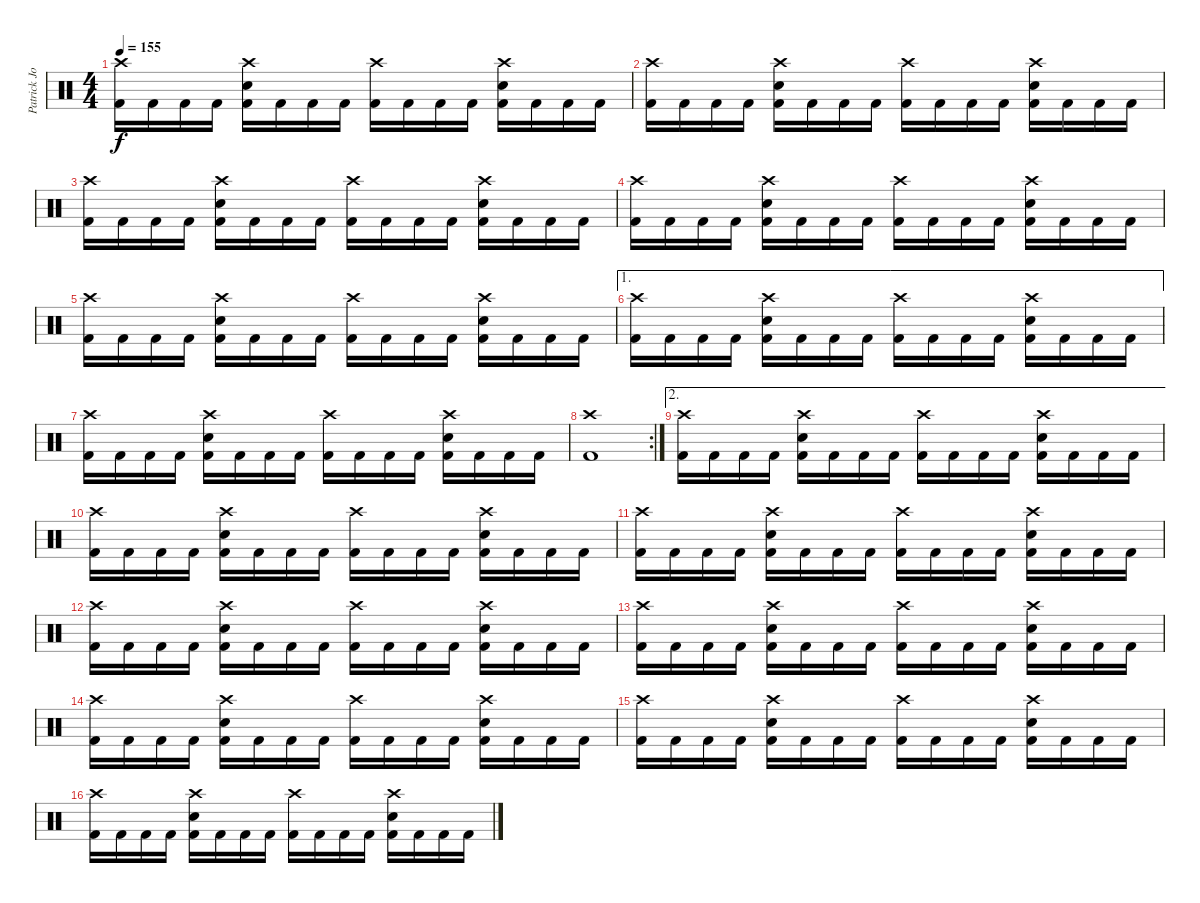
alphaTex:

\track ("Patrick Johansson" "Patrick Jo") {instrument percussion}
\staff {score}
\articulation defaults
\ts (4 4)
\tempo 155
\clef neutral
\ks c
("Crash high (hit)" "Kick (hit) 2").16{dy f} "Kick (hit) 2".16 "Kick (hit) 2".16 "Kick (hit) 2".16 ("Crash high (hit)" "Electric Snare (hit)" "Kick (hit) 2").16 "Kick (hit) 2".16 "Kick (hit) 2".16 "Kick (hit) 2".16 ("Crash high (hit)" "Kick (hit) 2").16 "Kick (hit) 2".16 "Kick (hit) 2".16 "Kick (hit) 2".16 ("Crash high (hit)" "Electric Snare (hit)" "Kick (hit) 2").16 "Kick (hit) 2".16 "Kick (hit) 2".16 "Kick (hit) 2".16 |
("Crash high (hit)" "Kick (hit) 2").16 "Kick (hit) 2".16 "Kick (hit) 2".16 "Kick (hit) 2".16 ("Crash high (hit)" "Electric Snare (hit)" "Kick (hit) 2").16 "Kick (hit) 2".16 "Kick (hit) 2".16 "Kick (hit) 2".16 ("Crash high (hit)" "Kick (hit) 2").16 "Kick (hit) 2".16 "Kick (hit) 2".16 "Kick (hit) 2".16 ("Crash high (hit)" "Electric Snare (hit)" "Kick (hit) 2").16 "Kick (hit) 2".16 "Kick (hit) 2".16 "Kick (hit) 2".16 |
("Crash high (hit)" "Kick (hit) 2").16 "Kick (hit) 2".16 "Kick (hit) 2".16 "Kick (hit) 2".16 ("Crash high (hit)" "Electric Snare (hit)" "Kick (hit) 2").16 "Kick (hit) 2".16 "Kick (hit) 2".16 "Kick (hit) 2".16 ("Crash high (hit)" "Kick (hit) 2").16 "Kick (hit) 2".16 "Kick (hit) 2".16 "Kick (hit) 2".16 ("Crash high (hit)" "Electric Snare (hit)" "Kick (hit) 2").16 "Kick (hit) 2".16 "Kick (hit) 2".16 "Kick (hit) 2".16 |
("Crash high (hit)" "Kick (hit) 2").16 "Kick (hit) 2".16 "Kick (hit) 2".16 "Kick (hit) 2".16 ("Crash high (hit)" "Electric Snare (hit)" "Kick (hit) 2").16 "Kick (hit) 2".16 "Kick (hit) 2".16 "Kick (hit) 2".16 ("Crash high (hit)" "Kick (hit) 2").16 "Kick (hit) 2".16 "Kick (hit) 2".16 "Kick (hit) 2".16 ("Crash high (hit)" "Electric Snare (hit)" "Kick (hit) 2").16 "Kick (hit) 2".16 "Kick (hit) 2".16 "Kick (hit) 2".16 |
("Crash high (hit)" "Kick (hit) 2").16 "Kick (hit) 2".16 "Kick (hit) 2".16 "Kick (hit) 2".16 ("Crash high (hit)" "Electric Snare (hit)" "Kick (hit) 2").16 "Kick (hit) 2".16 "Kick (hit) 2".16 "Kick (hit) 2".16 ("Crash high (hit)" "Kick (hit) 2").16 "Kick (hit) 2".16 "Kick (hit) 2".16 "Kick (hit) 2".16 ("Crash high (hit)" "Electric Snare (hit)" "Kick (hit) 2").16 "Kick (hit) 2".16 "Kick (hit) 2".16 "Kick (hit) 2".16 |
\ae 1
("Crash high (hit)" "Kick (hit) 2").16 "Kick (hit) 2".16 "Kick (hit) 2".16 "Kick (hit) 2".16 ("Crash high (hit)" "Electric Snare (hit)" "Kick (hit) 2").16 "Kick (hit) 2".16 "Kick (hit) 2".16 "Kick (hit) 2".16 ("Crash high (hit)" "Kick (hit) 2").16 "Kick (hit) 2".16 "Kick (hit) 2".16 "Kick (hit) 2".16 ("Crash high (hit)" "Electric Snare (hit)" "Kick (hit) 2").16 "Kick (hit) 2".16 "Kick (hit) 2".16 "Kick (hit) 2".16 |
("Crash high (hit)" "Kick (hit) 2").16 "Kick (hit) 2".16 "Kick (hit) 2".16 "Kick (hit) 2".16 ("Crash high (hit)" "Electric Snare (hit)" "Kick (hit) 2").16 "Kick (hit) 2".16 "Kick (hit) 2".16 "Kick (hit) 2".16 ("Crash high (hit)" "Kick (hit) 2").16 "Kick (hit) 2".16 "Kick (hit) 2".16 "Kick (hit) 2".16 ("Crash high (hit)" "Electric Snare (hit)" "Kick (hit) 2").16 "Kick (hit) 2".16 "Kick (hit) 2".16 "Kick (hit) 2".16 |
\rc 2
("Crash high (hit)" "Kick (hit) 2").1 |
\ae 2
("Crash high (hit)" "Kick (hit) 2").16 "Kick (hit) 2".16 "Kick (hit) 2".16 "Kick (hit) 2".16 ("Crash high (hit)" "Electric Snare (hit)" "Kick (hit) 2").16 "Kick (hit) 2".16 "Kick (hit) 2".16 "Kick (hit) 2".16 ("Crash high (hit)" "Kick (hit) 2").16 "Kick (hit) 2".16 "Kick (hit) 2".16 "Kick (hit) 2".16 ("Crash high (hit)" "Electric Snare (hit)" "Kick (hit) 2").16 "Kick (hit) 2".16 "Kick (hit) 2".16 "Kick (hit) 2".16 |
("Crash high (hit)" "Kick (hit) 2").16 "Kick (hit) 2".16 "Kick (hit) 2".16 "Kick (hit) 2".16 ("Crash high (hit)" "Electric Snare (hit)" "Kick (hit) 2").16 "Kick (hit) 2".16 "Kick (hit) 2".16 "Kick (hit) 2".16 ("Crash high (hit)" "Kick (hit) 2").16 "Kick (hit) 2".16 "Kick (hit) 2".16 "Kick (hit) 2".16 ("Crash high (hit)" "Electric Snare (hit)" "Kick (hit) 2").16 "Kick (hit) 2".16 "Kick (hit) 2".16 "Kick (hit) 2".16 |
("Crash high (hit)" "Kick (hit) 2").16 "Kick (hit) 2".16 "Kick (hit) 2".16 "Kick (hit) 2".16 ("Crash high (hit)" "Electric Snare (hit)" "Kick (hit) 2").16 "Kick (hit) 2".16 "Kick (hit) 2".16 "Kick (hit) 2".16 ("Crash high (hit)" "Kick (hit) 2").16 "Kick (hit) 2".16 "Kick (hit) 2".16 "Kick (hit) 2".16 ("Crash high (hit)" "Electric Snare (hit)" "Kick (hit) 2").16 "Kick (hit) 2".16 "Kick (hit) 2".16 "Kick (hit) 2".16 |
("Crash high (hit)" "Kick (hit) 2").16 "Kick (hit) 2".16 "Kick (hit) 2".16 "Kick (hit) 2".16 ("Crash high (hit)" "Electric Snare (hit)" "Kick (hit) 2").16 "Kick (hit) 2".16 "Kick (hit) 2".16 "Kick (hit) 2".16 ("Crash high (hit)" "Kick (hit) 2").16 "Kick (hit) 2".16 "Kick (hit) 2".16 "Kick (hit) 2".16 ("Crash high (hit)" "Electric Snare (hit)" "Kick (hit) 2").16 "Kick (hit) 2".16 "Kick (hit) 2".16 "Kick (hit) 2".16 |
("Crash high (hit)" "Kick (hit) 2").16 "Kick (hit) 2".16 "Kick (hit) 2".16 "Kick (hit) 2".16 ("Crash high (hit)" "Electric Snare (hit)" "Kick (hit) 2").16 "Kick (hit) 2".16 "Kick (hit) 2".16 "Kick (hit) 2".16 ("Crash high (hit)" "Kick (hit) 2").16 "Kick (hit) 2".16 "Kick (hit) 2".16 "Kick (hit) 2".16 ("Crash high (hit)" "Electric Snare (hit)" "Kick (hit) 2").16 "Kick (hit) 2".16 "Kick (hit) 2".16 "Kick (hit) 2".16 |
("Crash high (hit)" "Kick (hit) 2").16 "Kick (hit) 2".16 "Kick (hit) 2".16 "Kick (hit) 2".16 ("Crash high (hit)" "Electric Snare (hit)" "Kick (hit) 2").16 "Kick (hit) 2".16 "Kick (hit) 2".16 "Kick (hit) 2".16 ("Crash high (hit)" "Kick (hit) 2").16 "Kick (hit) 2".16 "Kick (hit) 2".16 "Kick (hit) 2".16 ("Crash high (hit)" "Electric Snare (hit)" "Kick (hit) 2").16 "Kick (hit) 2".16 "Kick (hit) 2".16 "Kick (hit) 2".16 |
("Crash high (hit)" "Kick (hit) 2").16 "Kick (hit) 2".16 "Kick (hit) 2".16 "Kick (hit) 2".16 ("Crash high (hit)" "Electric Snare (hit)" "Kick (hit) 2").16 "Kick (hit) 2".16 "Kick (hit) 2".16 "Kick (hit) 2".16 ("Crash high (hit)" "Kick (hit) 2").16 "Kick (hit) 2".16 "Kick (hit) 2".16 "Kick (hit) 2".16 ("Crash high (hit)" "Electric Snare (hit)" "Kick (hit) 2").16 "Kick (hit) 2".16 "Kick (hit) 2".16 "Kick (hit) 2".16 |
("Crash high (hit)" "Kick (hit) 2").16 "Kick (hit) 2".16 "Kick (hit) 2".16 "Kick (hit) 2".16 ("Crash high (hit)" "Electric Snare (hit)" "Kick (hit) 2").16 "Kick (hit) 2".16 "Kick (hit) 2".16 "Kick (hit) 2".16 ("Crash high (hit)" "Kick (hit) 2").16 "Kick (hit) 2".16 "Kick (hit) 2".16 "Kick (hit) 2".16 ("Crash high (hit)" "Electric Snare (hit)" "Kick (hit) 2").16 "Kick (hit) 2".16 "Kick (hit) 2".16 "Kick (hit) 2".16
